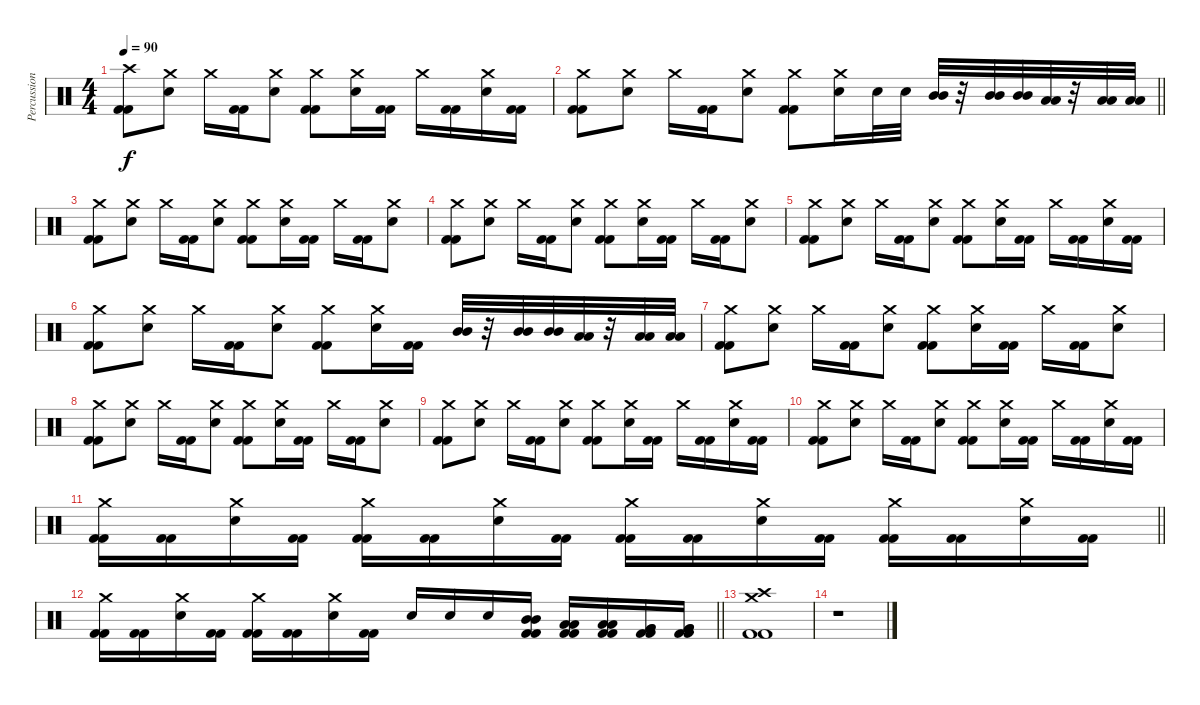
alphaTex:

\track ("Percussion" "Percussion") {instrument percussion}
\staff {score}
\articulation defaults
\ts (4 4)
\tempo 90
\clef neutral
\ks c
("Crash high (hit)" "Kick (hit) 2" "Kick (hit) 2").8{dy f} ("Crash medium (hit)" "Electric Snare (hit)").8 "Crash medium (hit)".16 ("Kick (hit) 2" "Kick (hit) 2").16 ("Crash medium (hit)" "Electric Snare (hit)").8 ("Crash medium (hit)" "Kick (hit) 2" "Kick (hit) 2").8 ("Crash medium (hit)" "Electric Snare (hit)").16 ("Kick (hit) 2" "Kick (hit) 2").16 "Crash medium (hit)".16 ("Kick (hit) 2" "Kick (hit) 2").16 ("Crash medium (hit)" "Electric Snare (hit)").16 ("Kick (hit) 2" "Kick (hit) 2").16 |
\barLineRight lightlight
("Crash medium (hit)" "Kick (hit) 2" "Kick (hit) 2").8 ("Crash medium (hit)" "Electric Snare (hit)").8 "Crash medium (hit)".16 ("Kick (hit) 2" "Kick (hit) 2").16 ("Crash medium (hit)" "Electric Snare (hit)").8 ("Crash medium (hit)" "Kick (hit) 2" "Kick (hit) 2").8 ("Crash medium (hit)" "Electric Snare (hit)").16 "Electric Snare (hit)".32 "Electric Snare (hit)".32 ("Mid Tom (hit)" "Mid Tom (hit)").32 r.32 ("Mid Tom (hit)" "Mid Tom (hit)").32 ("Mid Tom (hit)" "Mid Tom (hit)").32 ("Low Tom (hit)" "Low Tom (hit)").32 r.32 ("Low Tom (hit)" "Low Tom (hit)").32 ("Low Tom (hit)" "Low Tom (hit)").32 |
\section ("" "")
("Crash medium (hit)" "Kick (hit) 2" "Kick (hit) 2").8 ("Crash medium (hit)" "Electric Snare (hit)").8 "Crash medium (hit)".16 ("Kick (hit) 2" "Kick (hit) 2").16 ("Crash medium (hit)" "Electric Snare (hit)").8 ("Crash medium (hit)" "Kick (hit) 2" "Kick (hit) 2").8 ("Crash medium (hit)" "Electric Snare (hit)").16 ("Kick (hit) 2" "Kick (hit) 2").16 "Crash medium (hit)".16 ("Kick (hit) 2" "Kick (hit) 2").16 ("Crash medium (hit)" "Electric Snare (hit)").8 |
("Crash medium (hit)" "Kick (hit) 2" "Kick (hit) 2").8 ("Crash medium (hit)" "Electric Snare (hit)").8 "Crash medium (hit)".16 ("Kick (hit) 2" "Kick (hit) 2").16 ("Crash medium (hit)" "Electric Snare (hit)").8 ("Crash medium (hit)" "Kick (hit) 2" "Kick (hit) 2").8 ("Crash medium (hit)" "Electric Snare (hit)").16 ("Kick (hit) 2" "Kick (hit) 2").16 "Crash medium (hit)".16 ("Kick (hit) 2" "Kick (hit) 2").16 ("Crash medium (hit)" "Electric Snare (hit)").8 |
("Crash medium (hit)" "Kick (hit) 2" "Kick (hit) 2").8 ("Crash medium (hit)" "Electric Snare (hit)").8 "Crash medium (hit)".16 ("Kick (hit) 2" "Kick (hit) 2").16 ("Crash medium (hit)" "Electric Snare (hit)").8 ("Crash medium (hit)" "Kick (hit) 2" "Kick (hit) 2").8 ("Crash medium (hit)" "Electric Snare (hit)").16 ("Kick (hit) 2" "Kick (hit) 2").16 "Crash medium (hit)".16 ("Kick (hit) 2" "Kick (hit) 2").16 ("Crash medium (hit)" "Electric Snare (hit)").16 ("Kick (hit) 2" "Kick (hit) 2").16 |
("Crash medium (hit)" "Kick (hit) 2" "Kick (hit) 2").8 ("Crash medium (hit)" "Electric Snare (hit)").8 "Crash medium (hit)".16 ("Kick (hit) 2" "Kick (hit) 2").16 ("Crash medium (hit)" "Electric Snare (hit)").8 ("Crash medium (hit)" "Kick (hit) 2" "Kick (hit) 2").8 ("Crash medium (hit)" "Electric Snare (hit)").16 ("Kick (hit) 2" "Kick (hit) 2").16 ("Mid Tom (hit)" "Mid Tom (hit)").32 r.32 ("Mid Tom (hit)" "Mid Tom (hit)").32 ("Mid Tom (hit)" "Mid Tom (hit)").32 ("Low Tom (hit)" "Low Tom (hit)").32 r.32 ("Low Tom (hit)" "Low Tom (hit)").32 ("Low Tom (hit)" "Low Tom (hit)").32 |
("Crash medium (hit)" "Kick (hit) 2" "Kick (hit) 2").8 ("Crash medium (hit)" "Electric Snare (hit)").8 "Crash medium (hit)".16 ("Kick (hit) 2" "Kick (hit) 2").16 ("Crash medium (hit)" "Electric Snare (hit)").8 ("Crash medium (hit)" "Kick (hit) 2" "Kick (hit) 2").8 ("Crash medium (hit)" "Electric Snare (hit)").16 ("Kick (hit) 2" "Kick (hit) 2").16 "Crash medium (hit)".16 ("Kick (hit) 2" "Kick (hit) 2").16 ("Crash medium (hit)" "Electric Snare (hit)").8 |
("Crash medium (hit)" "Kick (hit) 2" "Kick (hit) 2").8 ("Crash medium (hit)" "Electric Snare (hit)").8 "Crash medium (hit)".16 ("Kick (hit) 2" "Kick (hit) 2").16 ("Crash medium (hit)" "Electric Snare (hit)").8 ("Crash medium (hit)" "Kick (hit) 2" "Kick (hit) 2").8 ("Crash medium (hit)" "Electric Snare (hit)").16 ("Kick (hit) 2" "Kick (hit) 2").16 "Crash medium (hit)".16 ("Kick (hit) 2" "Kick (hit) 2").16 ("Crash medium (hit)" "Electric Snare (hit)").8 |
("Crash medium (hit)" "Kick (hit) 2" "Kick (hit) 2").8 ("Crash medium (hit)" "Electric Snare (hit)").8 "Crash medium (hit)".16 ("Kick (hit) 2" "Kick (hit) 2").16 ("Crash medium (hit)" "Electric Snare (hit)").8 ("Crash medium (hit)" "Kick (hit) 2" "Kick (hit) 2").8 ("Crash medium (hit)" "Electric Snare (hit)").16 ("Kick (hit) 2" "Kick (hit) 2").16 "Crash medium (hit)".16 ("Kick (hit) 2" "Kick (hit) 2").16 ("Crash medium (hit)" "Electric Snare (hit)").16 ("Kick (hit) 2" "Kick (hit) 2").16 |
("Crash medium (hit)" "Kick (hit) 2" "Kick (hit) 2").8 ("Crash medium (hit)" "Electric Snare (hit)").8 "Crash medium (hit)".16 ("Kick (hit) 2" "Kick (hit) 2").16 ("Crash medium (hit)" "Electric Snare (hit)").8 ("Crash medium (hit)" "Kick (hit) 2" "Kick (hit) 2").8 ("Crash medium (hit)" "Electric Snare (hit)").16 ("Kick (hit) 2" "Kick (hit) 2").16 "Crash medium (hit)".16 ("Kick (hit) 2" "Kick (hit) 2").16 ("Crash medium (hit)" "Electric Snare (hit)").16 ("Kick (hit) 2" "Kick (hit) 2").16 |
\barLineRight lightlight
("Crash medium (hit)" "Kick (hit) 2" "Kick (hit) 2").16 ("Kick (hit) 2" "Kick (hit) 2").16 ("Crash medium (hit)" "Electric Snare (hit)").16 ("Kick (hit) 2" "Kick (hit) 2").16 ("Crash medium (hit)" "Kick (hit) 2" "Kick (hit) 2").16 ("Kick (hit) 2" "Kick (hit) 2").16 ("Crash medium (hit)" "Electric Snare (hit)").16 ("Kick (hit) 2" "Kick (hit) 2").16 ("Crash medium (hit)" "Kick (hit) 2" "Kick (hit) 2").16 ("Kick (hit) 2" "Kick (hit) 2").16 ("Crash medium (hit)" "Electric Snare (hit)").16 ("Kick (hit) 2" "Kick (hit) 2").16 ("Crash medium (hit)" "Kick (hit) 2" "Kick (hit) 2").16 ("Kick (hit) 2" "Kick (hit) 2").16 ("Crash medium (hit)" "Electric Snare (hit)").16 ("Kick (hit) 2" "Kick (hit) 2").16 |
\barLineRight lightlight
("Crash medium (hit)" "Kick (hit) 2" "Kick (hit) 2").16 ("Kick (hit) 2" "Kick (hit) 2").16 ("Crash medium (hit)" "Electric Snare (hit)").16 ("Kick (hit) 2" "Kick (hit) 2").16 ("Crash medium (hit)" "Kick (hit) 2" "Kick (hit) 2").16 ("Kick (hit) 2" "Kick (hit) 2").16 ("Crash medium (hit)" "Electric Snare (hit)").16 ("Kick (hit) 2" "Kick (hit) 2").16 "Electric Snare (hit)".16 "Electric Snare (hit)".16 "Electric Snare (hit)".16 ("Mid Tom (hit)" "Mid Tom (hit)" "Kick (hit) 2" "Kick (hit) 2").16 ("Low Tom (hit)" "Low Tom (hit)" "Kick (hit) 2" "Kick (hit) 2").16 ("Low Tom (hit)" "Low Tom (hit)" "Kick (hit) 2" "Kick (hit) 2").16 ("Very Low Tom (hit)" "Very Low Tom (hit)" "Kick (hit) 2" "Kick (hit) 2").16 ("Very Low Tom (hit)" "Very Low Tom (hit)" "Kick (hit) 2" "Kick (hit) 2").16 |
("Crash high (hit)" "Crash medium (hit)" "Kick (hit) 2" "Kick (hit) 2").1 |
r.1
